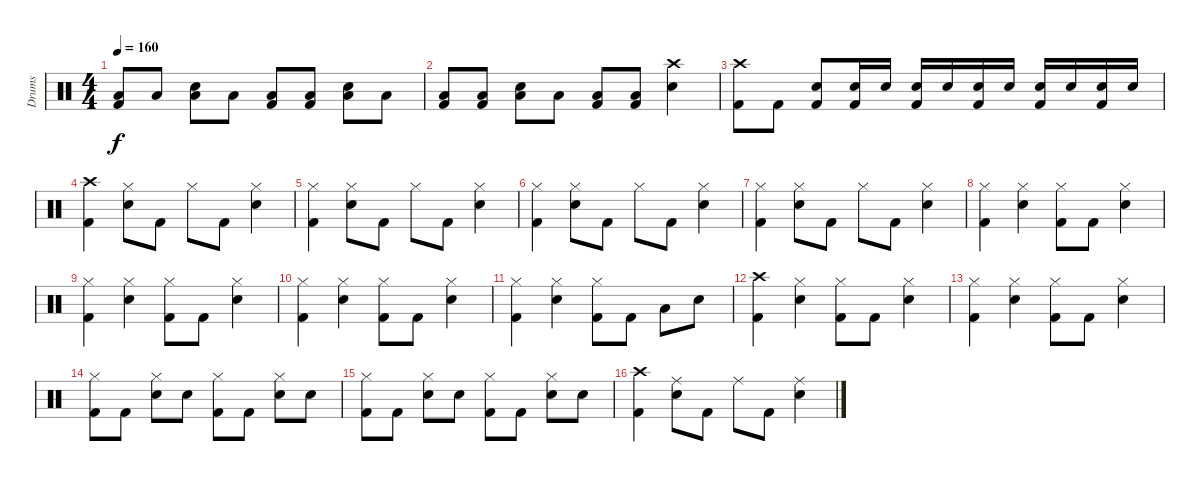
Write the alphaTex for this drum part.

\track ("Drums" "Drums") {instrument percussion}
\staff {score}
\articulation defaults
\ts (4 4)
\tempo 160
\clef neutral
\ks c
("Low Tom (hit)" "Kick (hit) 2").8{dy f} "Low Tom (hit)".8 ("Snare (hit) 2" "Low Tom (hit)").8 "Low Tom (hit)".8 ("Low Tom (hit)" "Kick (hit) 2").8 ("Low Tom (hit)" "Kick (hit) 2").8 ("Snare (hit) 2" "Low Tom (hit)").8 "Low Tom (hit)".8 |
("Low Tom (hit)" "Kick (hit) 2").8 ("Low Tom (hit)" "Kick (hit) 2").8 ("Snare (hit) 2" "Low Tom (hit)").8 "Low Tom (hit)".8 ("Low Tom (hit)" "Kick (hit) 2").8 ("Low Tom (hit)" "Kick (hit) 2").8 ("Crash high (hit)" "Snare (hit) 2").4 |
("Crash high (hit)" "Kick (hit) 2").8 "Kick (hit) 2".8 ("Snare (hit) 2" "Kick (hit) 2").8 ("Snare (hit) 2" "Kick (hit) 2").16 "Snare (hit) 2".16 ("Snare (hit) 2" "Kick (hit) 2").16 "Snare (hit) 2".16 ("Snare (hit) 2" "Kick (hit) 2").16 "Snare (hit) 2".16 ("Snare (hit) 2" "Kick (hit) 2").16 "Snare (hit) 2".16 ("Snare (hit) 2" "Kick (hit) 2").16 "Snare (hit) 2".16 |
("Crash high (hit)" "Kick (hit) 2").4 ("Hi-Hat (closed)" "Snare (hit) 2").8 "Kick (hit) 2".8 "Hi-Hat (closed)".8 "Kick (hit) 2".8 ("Hi-Hat (closed)" "Snare (hit) 2").4 |
("Hi-Hat (closed)" "Kick (hit) 2").4 ("Hi-Hat (closed)" "Snare (hit) 2").8 "Kick (hit) 2".8 "Hi-Hat (closed)".8 "Kick (hit) 2".8 ("Hi-Hat (closed)" "Snare (hit) 2").4 |
("Hi-Hat (closed)" "Kick (hit) 2").4 ("Hi-Hat (closed)" "Snare (hit) 2").8 "Kick (hit) 2".8 "Hi-Hat (closed)".8 "Kick (hit) 2".8 ("Hi-Hat (closed)" "Snare (hit) 2").4 |
("Hi-Hat (closed)" "Kick (hit) 2").4 ("Hi-Hat (closed)" "Snare (hit) 2").8 "Kick (hit) 2".8 "Hi-Hat (closed)".8 "Kick (hit) 2".8 ("Hi-Hat (closed)" "Snare (hit) 2").4 |
("Hi-Hat (closed)" "Kick (hit) 2").4 ("Hi-Hat (closed)" "Snare (hit) 2").4 ("Hi-Hat (closed)" "Kick (hit) 2").8 "Kick (hit) 2".8 ("Hi-Hat (closed)" "Snare (hit) 2").4 |
("Hi-Hat (closed)" "Kick (hit) 2").4 ("Hi-Hat (closed)" "Snare (hit) 2").4 ("Hi-Hat (closed)" "Kick (hit) 2").8 "Kick (hit) 2".8 ("Hi-Hat (closed)" "Snare (hit) 2").4 |
("Hi-Hat (closed)" "Kick (hit) 2").4 ("Hi-Hat (closed)" "Snare (hit) 2").4 ("Hi-Hat (closed)" "Kick (hit) 2").8 "Kick (hit) 2".8 ("Hi-Hat (closed)" "Snare (hit) 2").4 |
("Hi-Hat (closed)" "Kick (hit) 2").4 ("Hi-Hat (closed)" "Snare (hit) 2").4 ("Hi-Hat (closed)" "Kick (hit) 2").8 "Kick (hit) 2".8 "Low Tom (hit)".8 "Snare (hit) 2".8 |
("Crash high (hit)" "Kick (hit) 2").4 ("Hi-Hat (closed)" "Snare (hit) 2").4 ("Hi-Hat (closed)" "Kick (hit) 2").8 "Kick (hit) 2".8 ("Hi-Hat (closed)" "Snare (hit) 2").4 |
("Hi-Hat (closed)" "Kick (hit) 2").4 ("Hi-Hat (closed)" "Snare (hit) 2").4 ("Hi-Hat (closed)" "Kick (hit) 2").8 "Kick (hit) 2".8 ("Hi-Hat (closed)" "Snare (hit) 2").4 |
("Hi-Hat (closed)" "Kick (hit) 2").8 "Kick (hit) 2".8 ("Hi-Hat (closed)" "Snare (hit) 2").8 "Snare (hit) 2".8 ("Hi-Hat (closed)" "Kick (hit) 2").8 "Kick (hit) 2".8 ("Hi-Hat (closed)" "Snare (hit) 2").8 "Snare (hit) 2".8 |
("Hi-Hat (closed)" "Kick (hit) 2").8 "Kick (hit) 2".8 ("Hi-Hat (closed)" "Snare (hit) 2").8 "Snare (hit) 2".8 ("Hi-Hat (closed)" "Kick (hit) 2").8 "Kick (hit) 2".8 ("Hi-Hat (closed)" "Snare (hit) 2").8 "Snare (hit) 2".8 |
("Crash high (hit)" "Kick (hit) 2").4 ("Ride (middle)" "Snare (hit) 2").8 "Kick (hit) 2".8 "Ride (middle)".8 "Kick (hit) 2".8 ("Ride (middle)" "Snare (hit) 2").4
